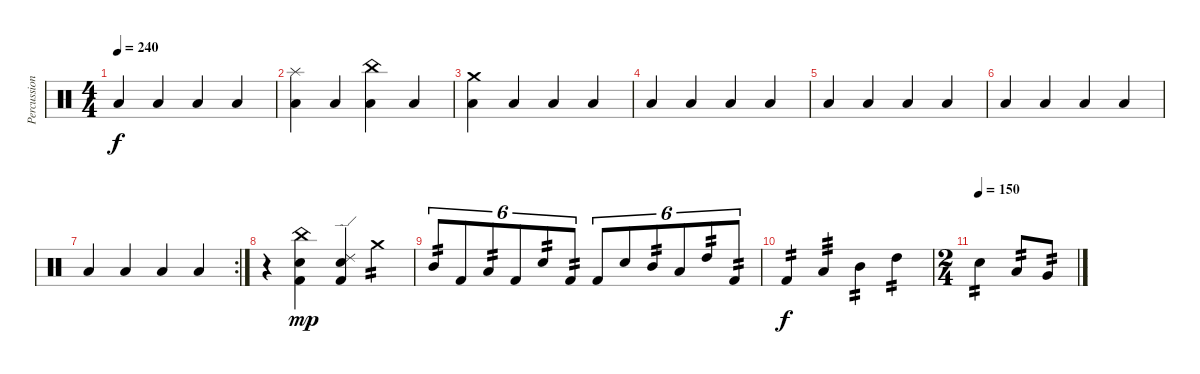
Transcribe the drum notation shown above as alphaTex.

\track ("Percussion" "Percussion") {instrument percussion}
\staff {score}
\articulation defaults
\ts (4 4)
\tempo 240
\clef neutral
\ks c "Low Tom (hit)".4{dy f} "Low Tom (hit)".4 "Low Tom (hit)".4 "Low Tom (hit)".4
|
("Splash (hit)" "Low Tom (hit)").4 "Low Tom (hit)".4 ("China (hit)" "Low Tom (hit)").4 "Low Tom (hit)".4 |
("Crash medium (hit)" "Low Tom (hit)").4 "Low Tom (hit)".4 "Low Tom (hit)".4 "Low Tom (hit)".4 |
"Low Tom (hit)".4 "Low Tom (hit)".4 "Low Tom (hit)".4 "Low Tom (hit)".4 |
"Low Tom (hit)".4 "Low Tom (hit)".4 "Low Tom (hit)".4 "Low Tom (hit)".4 |
"Low Tom (hit)".4 "Low Tom (hit)".4 "Low Tom (hit)".4 "Low Tom (hit)".4 |
\rc 2 "Low Tom (hit)".4 "Low Tom (hit)".4 "Low Tom (hit)".4 "Low Tom (hit)".4
|
r.4 ("China (hit)" "Kick (hit) 2" "Snare (hit) 2").4{dy mp} ("Ride (edge) 2" "Kick (hit) 2" "Snare (hit) 2").4 "Crash medium (hit)".4{tp 2} |
"Mid Tom (hit)".8{tu (6 4) tp 2} "Kick (hit) 2".8{tu (6 4)} "Low Tom (hit)".8{tu (6 4) tp 2} "Kick (hit) 2".8{tu (6 4)} "Snare (hit) 2".8{tu (6 4) tp 2} "Kick (hit) 2".8{tu (6 4) tp 2} "Kick (hit) 2".8{tu (6 4)} "Snare (hit) 2".8{tu (6 4)} "Mid Tom (hit)".8{tu (6 4) tp 2} "Low Tom (hit)".8{tu (6 4)} "High Tom (hit)".8{tu (6 4) tp 2} "Kick (hit) 2".8{tu (6 4) tp 2} |
"Kick (hit) 2".4{tp 2 dy f} "Low Tom (hit)".4{tp 3} "Mid Tom (hit)".4{tp 2} "High Tom (hit)".4{tp 2} |
\ts (2 4)
\tempo (150)
"Snare (hit) 2".4{tp 2} "Low Tom (hit)".8{tp 2} "Very Low Tom (hit)".8{tp 2}
